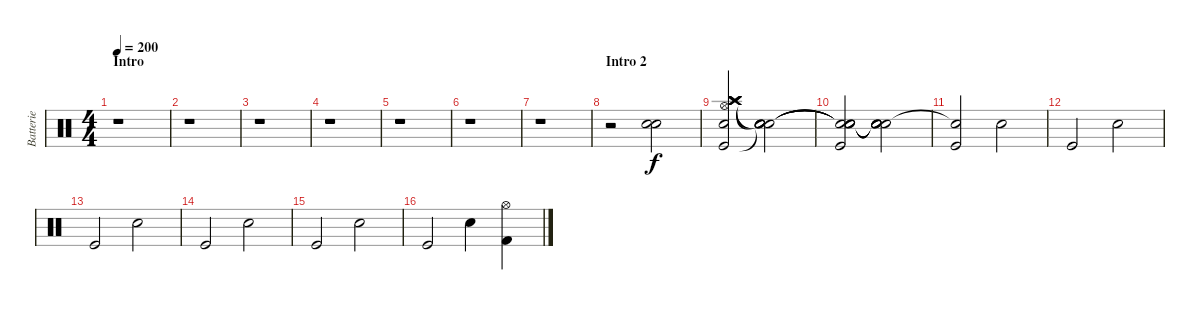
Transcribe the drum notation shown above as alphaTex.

\track ("Batterie" "Batterie") {instrument percussion}
\staff {score}
\articulation defaults
\ts (4 4)
\section ("" "Intro")
\tempo 200
\clef neutral
\ks c
r.1{dy f} |
r.1 |
r.1 |
r.1 |
r.1 |
r.1 |
r.1 |
\section ("" "Intro 2")
r.2 ("Snare (hit) 2" "Electric Snare (hit)").2 |
("Electric Snare (hit)" "Crash high (hit)" "Hi-Hat (open)" "Kick (hit)" "Crash high (hit)" "Crash high (hit)").2 ("Electric Snare (hit)" "Snare (hit)"{t} "Snare (hit)"{t} "Snare (hit)"{t} "Snare (hit)"{t}).2 |
("Kick (hit)" "Snare (hit)"{t} "Snare (hit)"{t} "Snare (hit)"{t} "Snare (hit)"{t}).2 ("Electric Snare (hit)" "Snare (hit)"{t} "Snare (hit)"{t} "Snare (hit)"{t} "Snare (hit)"{t}).2 |
("Kick (hit)" "Snare (hit)"{t}).2 "Electric Snare (hit)".2 |
"Kick (hit)".2 "Electric Snare (hit)".2 |
"Kick (hit)".2 "Electric Snare (hit)".2 |
"Kick (hit)".2 "Electric Snare (hit)".2 |
"Kick (hit)".2 "Electric Snare (hit)".2 |
"Kick (hit)".2 "Electric Snare (hit)".4 ("Kick (hit) 2" "Hi-Hat (open)").4
